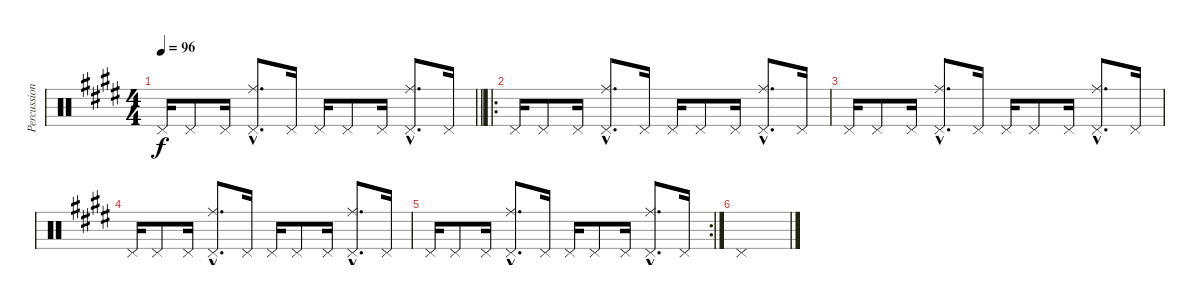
\track ("Percussions" "Percussion") {instrument percussion}
\staff {score}
\articulation defaults
\ts (4 4)
\tempo 96
\clef neutral
\barLineRight lightlight
\ks e "Pedal Hi-Hat (hit)".16{dy f} "Pedal Hi-Hat (hit)".8 "Pedal Hi-Hat (hit)".16
("Pedal Hi-Hat (hit)"{hac} "Ride (middle)"{hac}).8{d} "Pedal Hi-Hat (hit)".16 "Pedal Hi-Hat (hit)".16 "Pedal Hi-Hat (hit)".8 "Pedal Hi-Hat (hit)".16 ("Pedal Hi-Hat (hit)"{hac} "Ride (middle)"{hac}).8{d} "Pedal Hi-Hat (hit)".16 |
\ro "Pedal Hi-Hat (hit)".16 "Pedal Hi-Hat (hit)".8 "Pedal Hi-Hat (hit)".16
("Pedal Hi-Hat (hit)"{hac} "Ride (middle)"{hac}).8{d} "Pedal Hi-Hat (hit)".16 "Pedal Hi-Hat (hit)".16 "Pedal Hi-Hat (hit)".8 "Pedal Hi-Hat (hit)".16 ("Pedal Hi-Hat (hit)"{hac} "Ride (middle)"{hac}).8{d} "Pedal Hi-Hat (hit)".16 |
"Pedal Hi-Hat (hit)".16 "Pedal Hi-Hat (hit)".8 "Pedal Hi-Hat (hit)".16 ("Pedal Hi-Hat (hit)"{hac} "Ride (middle)"{hac}).8{d} "Pedal Hi-Hat (hit)".16 "Pedal Hi-Hat (hit)".16 "Pedal Hi-Hat (hit)".8 "Pedal Hi-Hat (hit)".16 ("Pedal Hi-Hat (hit)"{hac} "Ride (middle)"{hac}).8{d} "Pedal Hi-Hat (hit)".16 |
"Pedal Hi-Hat (hit)".16 "Pedal Hi-Hat (hit)".8 "Pedal Hi-Hat (hit)".16 ("Pedal Hi-Hat (hit)"{hac} "Ride (middle)"{hac}).8{d} "Pedal Hi-Hat (hit)".16 "Pedal Hi-Hat (hit)".16 "Pedal Hi-Hat (hit)".8 "Pedal Hi-Hat (hit)".16 ("Pedal Hi-Hat (hit)"{hac} "Ride (middle)"{hac}).8{d} "Pedal Hi-Hat (hit)".16 |
\rc 2 "Pedal Hi-Hat (hit)".16 "Pedal Hi-Hat (hit)".8 "Pedal Hi-Hat (hit)".16
("Pedal Hi-Hat (hit)"{hac} "Ride (middle)"{hac}).8{d} "Pedal Hi-Hat (hit)".16 "Pedal Hi-Hat (hit)".16 "Pedal Hi-Hat (hit)".8 "Pedal Hi-Hat (hit)".16 ("Pedal Hi-Hat (hit)"{hac} "Ride (middle)"{hac}).8{d} "Pedal Hi-Hat (hit)".16 |
"Pedal Hi-Hat (hit)".1
